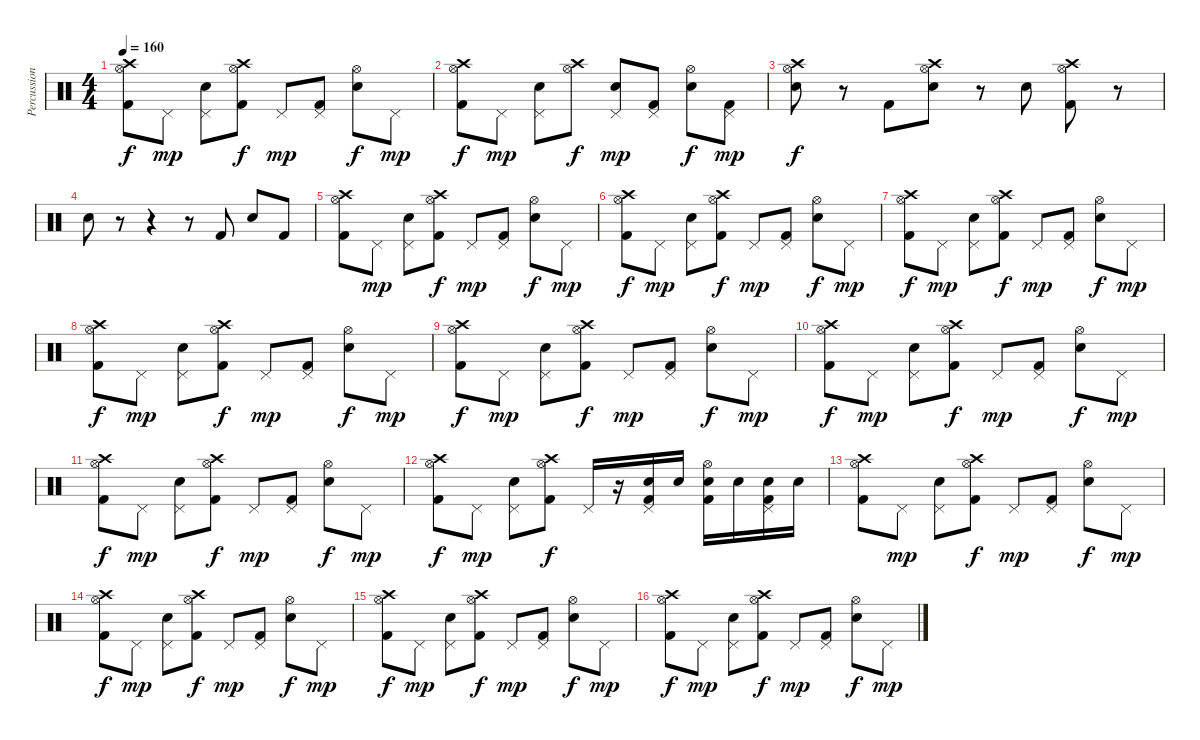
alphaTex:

\track ("Percussion" "Percussion") {instrument percussion}
\staff {score}
\articulation defaults
\ts (4 4)
\tempo 160
\clef neutral
\ks c
("Hi-Hat (open)" "Crash high (hit)" "Kick (hit) 2").8{dy f} "Pedal Hi-Hat (hit)".8{dy mp} ("Pedal Hi-Hat (hit)" "Snare (hit) 2").8 ("Hi-Hat (open)" "Crash high (hit)" "Kick (hit) 2").8{dy f} "Pedal Hi-Hat (hit)".8{dy mp} ("Pedal Hi-Hat (hit)" "Kick (hit) 2").8 ("Hi-Hat (open)" "Snare (hit) 2").8{dy f} "Pedal Hi-Hat (hit)".8{dy mp} |
("Hi-Hat (open)" "Crash high (hit)" "Kick (hit) 2").8{dy f} "Pedal Hi-Hat (hit)".8{dy mp} ("Pedal Hi-Hat (hit)" "Snare (hit) 2").8 ("Hi-Hat (open)" "Crash high (hit)").8{dy f} ("Pedal Hi-Hat (hit)" "Snare (hit) 2").8{dy mp} ("Pedal Hi-Hat (hit)" "Kick (hit) 2").8 ("Hi-Hat (open)" "Snare (hit) 2").8{dy f} ("Pedal Hi-Hat (hit)" "Kick (hit) 2").8{dy mp} |
("Hi-Hat (open)" "Crash high (hit)" "Snare (hit) 2").8{dy f} r.8 "Kick (hit) 2".8 ("Hi-Hat (open)" "Crash high (hit)" "Snare (hit) 2").8 r.8 "Snare (hit) 2".8 ("Hi-Hat (open)" "Crash high (hit)" "Kick (hit) 2").8 r.8 |
"Snare (hit) 2".8 r.8 r.4 r.8 "Kick (hit) 2".8 "Snare (hit) 2".8 "Kick (hit) 2".8 |
("Hi-Hat (open)" "Crash high (hit)" "Kick (hit) 2").8 "Pedal Hi-Hat (hit)".8{dy mp} ("Pedal Hi-Hat (hit)" "Snare (hit) 2").8 ("Hi-Hat (open)" "Crash high (hit)" "Kick (hit) 2").8{dy f} "Pedal Hi-Hat (hit)".8{dy mp} ("Pedal Hi-Hat (hit)" "Kick (hit) 2").8 ("Hi-Hat (open)" "Snare (hit) 2").8{dy f} "Pedal Hi-Hat (hit)".8{dy mp} |
("Hi-Hat (open)" "Crash high (hit)" "Kick (hit) 2").8{dy f} "Pedal Hi-Hat (hit)".8{dy mp} ("Pedal Hi-Hat (hit)" "Snare (hit) 2").8 ("Hi-Hat (open)" "Crash high (hit)" "Kick (hit) 2").8{dy f} "Pedal Hi-Hat (hit)".8{dy mp} ("Pedal Hi-Hat (hit)" "Kick (hit) 2").8 ("Hi-Hat (open)" "Snare (hit) 2").8{dy f} "Pedal Hi-Hat (hit)".8{dy mp} |
("Hi-Hat (open)" "Crash high (hit)" "Kick (hit) 2").8{dy f} "Pedal Hi-Hat (hit)".8{dy mp} ("Pedal Hi-Hat (hit)" "Snare (hit) 2").8 ("Hi-Hat (open)" "Crash high (hit)" "Kick (hit) 2").8{dy f} "Pedal Hi-Hat (hit)".8{dy mp} ("Pedal Hi-Hat (hit)" "Kick (hit) 2").8 ("Hi-Hat (open)" "Snare (hit) 2").8{dy f} "Pedal Hi-Hat (hit)".8{dy mp} |
("Hi-Hat (open)" "Crash high (hit)" "Kick (hit) 2").8{dy f} "Pedal Hi-Hat (hit)".8{dy mp} ("Pedal Hi-Hat (hit)" "Snare (hit) 2").8 ("Hi-Hat (open)" "Crash high (hit)" "Kick (hit) 2").8{dy f} "Pedal Hi-Hat (hit)".8{dy mp} ("Pedal Hi-Hat (hit)" "Kick (hit) 2").8 ("Hi-Hat (open)" "Snare (hit) 2").8{dy f} "Pedal Hi-Hat (hit)".8{dy mp} |
("Hi-Hat (open)" "Crash high (hit)" "Kick (hit) 2").8{dy f} "Pedal Hi-Hat (hit)".8{dy mp} ("Pedal Hi-Hat (hit)" "Snare (hit) 2").8 ("Hi-Hat (open)" "Crash high (hit)" "Kick (hit) 2").8{dy f} "Pedal Hi-Hat (hit)".8{dy mp} ("Pedal Hi-Hat (hit)" "Kick (hit) 2").8 ("Hi-Hat (open)" "Snare (hit) 2").8{dy f} "Pedal Hi-Hat (hit)".8{dy mp} |
("Hi-Hat (open)" "Crash high (hit)" "Kick (hit) 2").8{dy f} "Pedal Hi-Hat (hit)".8{dy mp} ("Pedal Hi-Hat (hit)" "Snare (hit) 2").8 ("Hi-Hat (open)" "Crash high (hit)" "Kick (hit) 2").8{dy f} "Pedal Hi-Hat (hit)".8{dy mp} ("Pedal Hi-Hat (hit)" "Kick (hit) 2").8 ("Hi-Hat (open)" "Snare (hit) 2").8{dy f} "Pedal Hi-Hat (hit)".8{dy mp} |
("Hi-Hat (open)" "Crash high (hit)" "Kick (hit) 2").8{dy f} "Pedal Hi-Hat (hit)".8{dy mp} ("Pedal Hi-Hat (hit)" "Snare (hit) 2").8 ("Hi-Hat (open)" "Crash high (hit)" "Kick (hit) 2").8{dy f} "Pedal Hi-Hat (hit)".8{dy mp} ("Pedal Hi-Hat (hit)" "Kick (hit) 2").8 ("Hi-Hat (open)" "Snare (hit) 2").8{dy f} "Pedal Hi-Hat (hit)".8{dy mp} |
("Hi-Hat (open)" "Crash high (hit)" "Kick (hit) 2").8{dy f} "Pedal Hi-Hat (hit)".8{dy mp} ("Pedal Hi-Hat (hit)" "Snare (hit) 2").8 ("Hi-Hat (open)" "Crash high (hit)" "Kick (hit) 2").8{dy f} "Pedal Hi-Hat (hit)".16 r.16 ("Pedal Hi-Hat (hit)" "Snare (hit) 2" "Kick (hit) 2").16 "Snare (hit) 2".16 ("Hi-Hat (open)" "Snare (hit) 2" "Kick (hit) 2").16 "Snare (hit) 2".16 ("Pedal Hi-Hat (hit)" "Snare (hit) 2" "Kick (hit) 2").16 "Snare (hit) 2".16 |
("Hi-Hat (open)" "Crash high (hit)" "Kick (hit) 2").8 "Pedal Hi-Hat (hit)".8{dy mp} ("Pedal Hi-Hat (hit)" "Snare (hit) 2").8 ("Hi-Hat (open)" "Crash high (hit)" "Kick (hit) 2").8{dy f} "Pedal Hi-Hat (hit)".8{dy mp} ("Pedal Hi-Hat (hit)" "Kick (hit) 2").8 ("Hi-Hat (open)" "Snare (hit) 2").8{dy f} "Pedal Hi-Hat (hit)".8{dy mp} |
("Hi-Hat (open)" "Crash high (hit)" "Kick (hit) 2").8{dy f} "Pedal Hi-Hat (hit)".8{dy mp} ("Pedal Hi-Hat (hit)" "Snare (hit) 2").8 ("Hi-Hat (open)" "Crash high (hit)" "Kick (hit) 2").8{dy f} "Pedal Hi-Hat (hit)".8{dy mp} ("Pedal Hi-Hat (hit)" "Kick (hit) 2").8 ("Hi-Hat (open)" "Snare (hit) 2").8{dy f} "Pedal Hi-Hat (hit)".8{dy mp} |
("Hi-Hat (open)" "Crash high (hit)" "Kick (hit) 2").8{dy f} "Pedal Hi-Hat (hit)".8{dy mp} ("Pedal Hi-Hat (hit)" "Snare (hit) 2").8 ("Hi-Hat (open)" "Crash high (hit)" "Kick (hit) 2").8{dy f} "Pedal Hi-Hat (hit)".8{dy mp} ("Pedal Hi-Hat (hit)" "Kick (hit) 2").8 ("Hi-Hat (open)" "Snare (hit) 2").8{dy f} "Pedal Hi-Hat (hit)".8{dy mp} |
("Hi-Hat (open)" "Crash high (hit)" "Kick (hit) 2").8{dy f} "Pedal Hi-Hat (hit)".8{dy mp} ("Pedal Hi-Hat (hit)" "Snare (hit) 2").8 ("Hi-Hat (open)" "Crash high (hit)" "Kick (hit) 2").8{dy f} "Pedal Hi-Hat (hit)".8{dy mp} ("Pedal Hi-Hat (hit)" "Kick (hit) 2").8 ("Hi-Hat (open)" "Snare (hit) 2").8{dy f} "Pedal Hi-Hat (hit)".8{dy mp}
